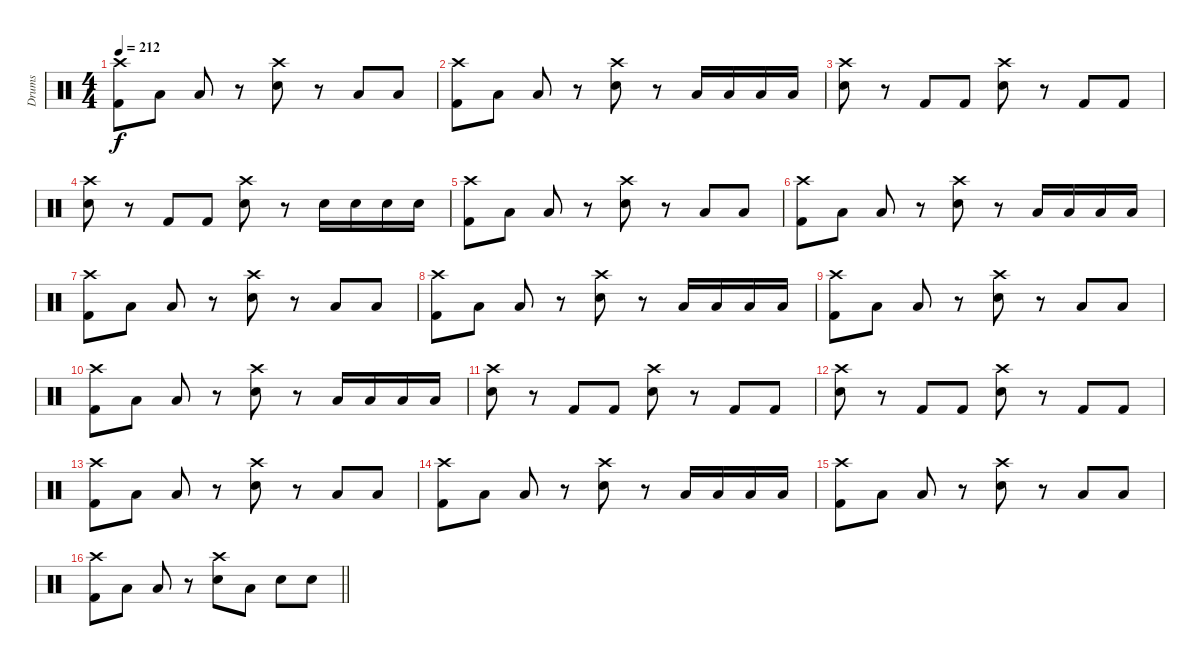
\track ("Drums" "Drums") {instrument percussion}
\staff {score}
\articulation defaults
\ts (4 4)
\tempo 212
\clef neutral
\ks c
("Crash high (hit)" "Kick (hit) 2").8{dy f} "Low Floor Tom (hit)".8 "Low Floor Tom (hit)".8 r.8 ("Crash high (hit)" "Snare (hit) 2").8 r.8 "Low Floor Tom (hit)".8 "Low Floor Tom (hit)".8 |
("Crash high (hit)" "Kick (hit) 2").8 "Low Floor Tom (hit)".8 "Low Floor Tom (hit)".8 r.8 ("Crash high (hit)" "Snare (hit) 2").8 r.8 "Low Floor Tom (hit)".16 "Low Floor Tom (hit)".16 "Low Floor Tom (hit)".16 "Low Floor Tom (hit)".16 |
("Crash high (hit)" "Snare (hit) 2").8 r.8 "Kick (hit) 2".8 "Kick (hit) 2".8 ("Crash high (hit)" "Snare (hit) 2").8 r.8 "Kick (hit) 2".8 "Kick (hit) 2".8 |
("Crash high (hit)" "Snare (hit) 2").8 r.8 "Kick (hit) 2".8 "Kick (hit) 2".8 ("Crash high (hit)" "Snare (hit) 2").8 r.8 "Snare (hit) 2".16 "Snare (hit) 2".16 "Snare (hit) 2".16 "Snare (hit) 2".16 |
("Crash high (hit)" "Kick (hit) 2").8 "Low Floor Tom (hit)".8 "Low Floor Tom (hit)".8 r.8 ("Crash high (hit)" "Snare (hit) 2").8 r.8 "Low Floor Tom (hit)".8 "Low Floor Tom (hit)".8 |
("Crash high (hit)" "Kick (hit) 2").8 "Low Floor Tom (hit)".8 "Low Floor Tom (hit)".8 r.8 ("Crash high (hit)" "Snare (hit) 2").8 r.8 "Low Floor Tom (hit)".16 "Low Floor Tom (hit)".16 "Low Floor Tom (hit)".16 "Low Floor Tom (hit)".16 |
("Crash high (hit)" "Kick (hit) 2").8 "Low Floor Tom (hit)".8 "Low Floor Tom (hit)".8 r.8 ("Crash high (hit)" "Snare (hit) 2").8 r.8 "Low Floor Tom (hit)".8 "Low Floor Tom (hit)".8 |
("Crash high (hit)" "Kick (hit) 2").8 "Low Floor Tom (hit)".8 "Low Floor Tom (hit)".8 r.8 ("Crash high (hit)" "Snare (hit) 2").8 r.8 "Low Floor Tom (hit)".16 "Low Floor Tom (hit)".16 "Low Floor Tom (hit)".16 "Low Floor Tom (hit)".16 |
("Crash high (hit)" "Kick (hit) 2").8 "Low Floor Tom (hit)".8 "Low Floor Tom (hit)".8 r.8 ("Crash high (hit)" "Snare (hit) 2").8 r.8 "Low Floor Tom (hit)".8 "Low Floor Tom (hit)".8 |
("Crash high (hit)" "Kick (hit) 2").8 "Low Floor Tom (hit)".8 "Low Floor Tom (hit)".8 r.8 ("Crash high (hit)" "Snare (hit) 2").8 r.8 "Low Floor Tom (hit)".16 "Low Floor Tom (hit)".16 "Low Floor Tom (hit)".16 "Low Floor Tom (hit)".16 |
("Crash high (hit)" "Snare (hit) 2").8 r.8 "Kick (hit) 2".8 "Kick (hit) 2".8 ("Crash high (hit)" "Snare (hit) 2").8 r.8 "Kick (hit) 2".8 "Kick (hit) 2".8 |
("Crash high (hit)" "Snare (hit) 2").8 r.8 "Kick (hit) 2".8 "Kick (hit) 2".8 ("Crash high (hit)" "Snare (hit) 2").8 r.8 "Kick (hit) 2".8 "Kick (hit) 2".8 |
("Crash high (hit)" "Kick (hit) 2").8 "Low Floor Tom (hit)".8 "Low Floor Tom (hit)".8 r.8 ("Crash high (hit)" "Snare (hit) 2").8 r.8 "Low Floor Tom (hit)".8 "Low Floor Tom (hit)".8 |
("Crash high (hit)" "Kick (hit) 2").8 "Low Floor Tom (hit)".8 "Low Floor Tom (hit)".8 r.8 ("Crash high (hit)" "Snare (hit) 2").8 r.8 "Low Floor Tom (hit)".16 "Low Floor Tom (hit)".16 "Low Floor Tom (hit)".16 "Low Floor Tom (hit)".16 |
("Crash high (hit)" "Kick (hit) 2").8 "Low Floor Tom (hit)".8 "Low Floor Tom (hit)".8 r.8 ("Crash high (hit)" "Snare (hit) 2").8 r.8 "Low Floor Tom (hit)".8 "Low Floor Tom (hit)".8 |
\barLineRight lightlight
("Crash high (hit)" "Kick (hit) 2").8 "Low Floor Tom (hit)".8 "Low Floor Tom (hit)".8 r.8 ("Crash high (hit)" "Snare (hit) 2").8 "Low Floor Tom (hit)".8 "Snare (hit) 2".8 "Snare (hit) 2".8
